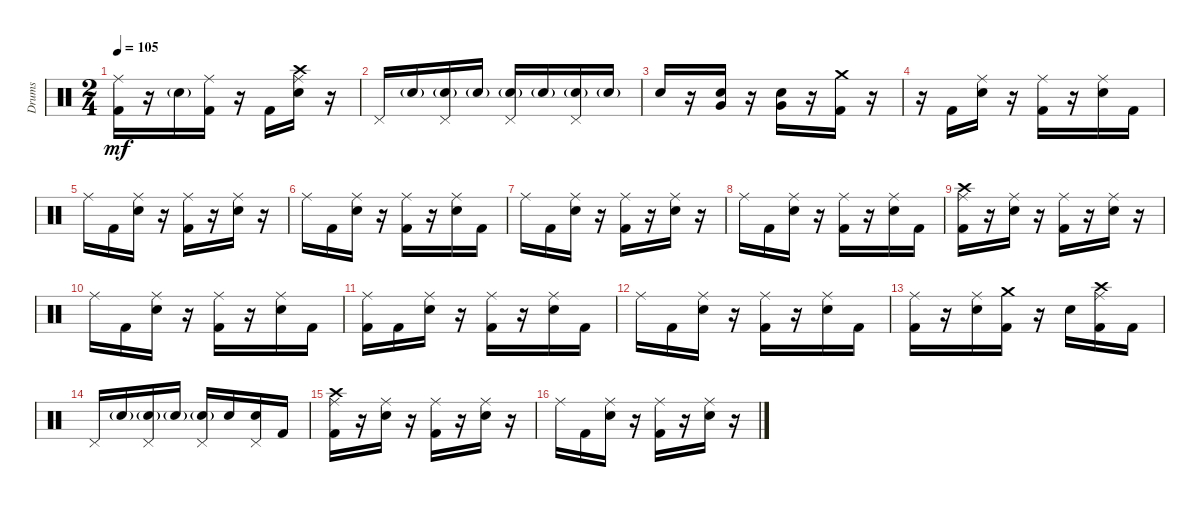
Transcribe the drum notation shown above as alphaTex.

\defaultSystemsLayout 4
\bracketExtendMode groupsimilarinstruments
\otherSystemsTrackNameOrientation horizontal
\track ("Godd" "Drums") {instrument percussion}
\staff {score}
\articulation defaults
\ts (2 4)
\tempo 105
\clef neutral
\ks c
("Ride (middle)" "Kick (hit) 2").16{dy mf} r.16 "Snare (hit) 2"{g}.16 ("Kick (hit) 2" "Ride (middle)").16 r.16 "Kick (hit) 2".16 ("Snare (hit) 2" "Ride (middle)" "Crash high (hit)").16 r.16 |
"Pedal Hi-Hat (hit)".16 "Snare (hit) 2"{g}.16 ("Snare (hit) 2"{g} "Pedal Hi-Hat (hit)").16 "Snare (hit) 2"{g}.16 ("Pedal Hi-Hat (hit)" "Snare (hit) 2"{g}).16 "Snare (hit) 2"{g}.16 ("Snare (hit) 2"{g} "Pedal Hi-Hat (hit)").16 "Snare (hit) 2"{g}.16 |
"Snare (hit) 2".16 r.16 ("Snare (hit) 2" "Very Low Tom (hit)").16 r.16 ("Snare (hit) 2" "Very Low Tom (hit)").16 r.16 ("Kick (hit) 2" "Crash medium (hit)").16 r.16 |
r.16 "Kick (hit) 2".16 ("Ride (middle)" "Snare (hit) 2").16 r.16 ("Ride (middle)" "Kick (hit) 2").16 r.16 ("Ride (middle)" "Snare (hit) 2").16 "Kick (hit) 2".16 |
"Ride (middle)".16 "Kick (hit) 2".16 ("Ride (middle)" "Snare (hit) 2").16 r.16 ("Ride (middle)" "Kick (hit) 2").16 r.16 ("Ride (middle)" "Snare (hit) 2").16 r.16 |
"Ride (middle)".16 "Kick (hit) 2".16 ("Ride (middle)" "Snare (hit) 2").16 r.16 ("Ride (middle)" "Kick (hit) 2").16 r.16 ("Ride (middle)" "Snare (hit) 2").16 "Kick (hit) 2".16 |
"Ride (middle)".16 "Kick (hit) 2".16 ("Ride (middle)" "Snare (hit) 2").16 r.16 ("Ride (middle)" "Kick (hit) 2").16 r.16 ("Ride (middle)" "Snare (hit) 2").16 r.16 |
"Ride (middle)".16 "Kick (hit) 2".16 ("Ride (middle)" "Snare (hit) 2").16 r.16 ("Ride (middle)" "Kick (hit) 2").16 r.16 ("Ride (middle)" "Snare (hit) 2").16 "Kick (hit) 2".16 |
("Ride (middle)" "Crash high (hit)" "Kick (hit) 2").16 r.16 ("Ride (middle)" "Snare (hit) 2").16 r.16 ("Ride (middle)" "Kick (hit) 2").16 r.16 ("Ride (middle)" "Snare (hit) 2").16 r.16 |
"Ride (middle)".16 "Kick (hit) 2".16 ("Ride (middle)" "Snare (hit) 2").16 r.16 ("Ride (middle)" "Kick (hit) 2").16 r.16 ("Ride (middle)" "Snare (hit) 2").16 "Kick (hit) 2".16 |
("Ride (middle)" "Kick (hit) 2").16 "Kick (hit) 2".16 ("Ride (middle)" "Snare (hit) 2").16 r.16 ("Ride (middle)" "Kick (hit) 2").16 r.16 ("Ride (middle)" "Snare (hit) 2").16 "Kick (hit) 2".16 |
"Ride (middle)".16 "Kick (hit) 2".16 ("Ride (middle)" "Snare (hit) 2").16 r.16 ("Ride (middle)" "Kick (hit) 2").16 r.16 ("Ride (middle)" "Snare (hit) 2").16 "Kick (hit) 2".16 |
("Ride (middle)" "Kick (hit) 2").16 r.16 ("Ride (middle)" "Snare (hit) 2").16 ("Kick (hit) 2" "Crash medium (hit)").16 r.16 "Snare (hit) 2".16 ("Ride (middle)" "Crash high (hit)" "Kick (hit) 2").16 "Kick (hit) 2".16 |
"Pedal Hi-Hat (hit)".16 "Snare (hit) 2"{g}.16 ("Pedal Hi-Hat (hit)" "Snare (hit) 2"{g}).16 "Snare (hit) 2"{g}.16 ("Pedal Hi-Hat (hit)" "Snare (hit) 2"{g}).16 "Snare (hit) 2".16 ("Pedal Hi-Hat (hit)" "Snare (hit) 2").16 "Kick (hit) 2".16 |
("Ride (middle)" "Crash high (hit)" "Kick (hit) 2").16 r.16 ("Ride (middle)" "Snare (hit) 2").16 r.16 ("Ride (middle)" "Kick (hit) 2").16 r.16 ("Ride (middle)" "Snare (hit) 2").16 r.16 |
"Ride (middle)".16 "Kick (hit) 2".16 ("Ride (middle)" "Snare (hit) 2").16 r.16 ("Ride (middle)" "Kick (hit) 2").16 r.16 ("Ride (middle)" "Snare (hit) 2").16 r.16
